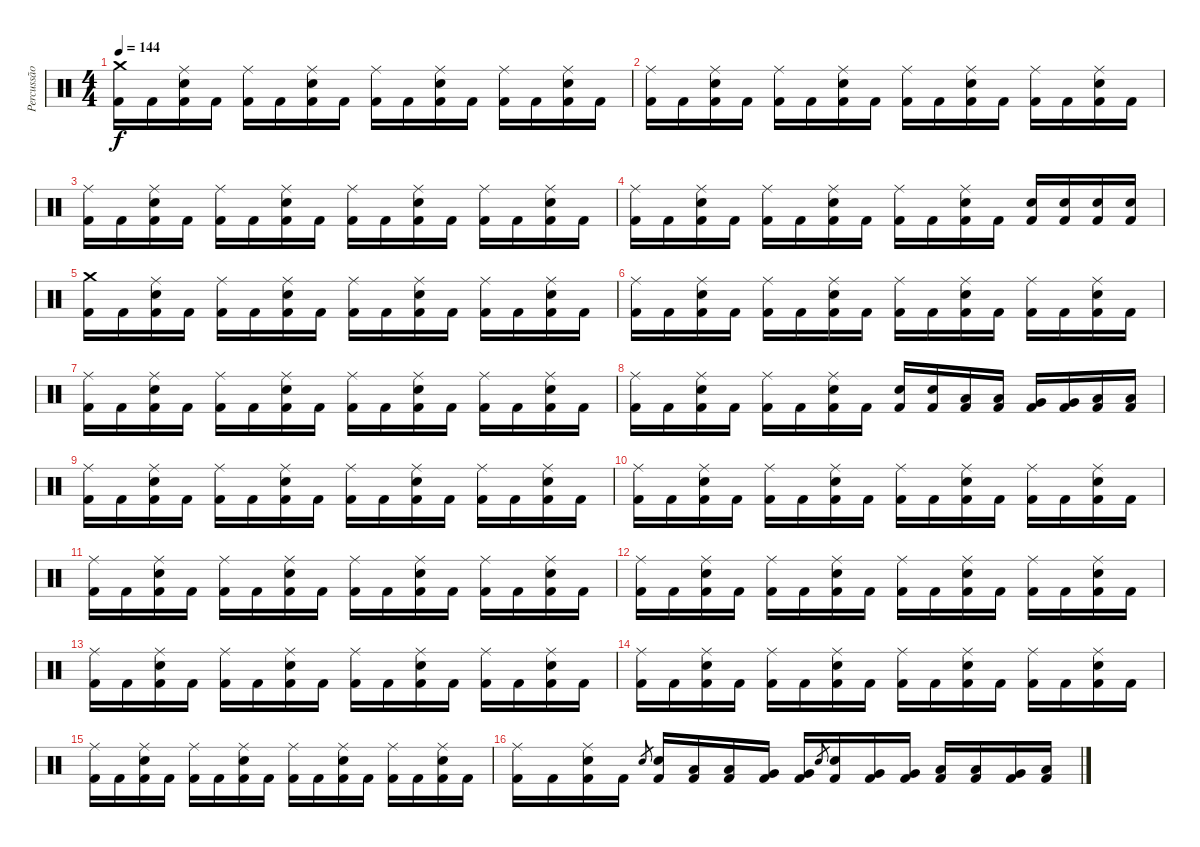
\track ("Percussão" "Percussão") {instrument percussion}
\staff {score}
\articulation defaults
\ts (4 4)
\tempo 144
\clef neutral
\ks c
("Crash medium (hit)" "Kick (hit) 2").16{dy f} "Kick (hit) 2".16 ("Ride (middle)" "Electric Snare (hit)" "Kick (hit) 2").16 "Kick (hit) 2".16 ("Ride (middle)" "Kick (hit) 2").16 "Kick (hit) 2".16 ("Ride (middle)" "Electric Snare (hit)" "Kick (hit) 2").16 "Kick (hit) 2".16 ("Ride (middle)" "Kick (hit) 2").16 "Kick (hit) 2".16 ("Ride (middle)" "Electric Snare (hit)" "Kick (hit) 2").16 "Kick (hit) 2".16 ("Ride (middle)" "Kick (hit) 2").16 "Kick (hit) 2".16 ("Ride (middle)" "Electric Snare (hit)" "Kick (hit) 2").16 "Kick (hit) 2".16 |
("Ride (middle)" "Kick (hit) 2").16 "Kick (hit) 2".16 ("Ride (middle)" "Electric Snare (hit)" "Kick (hit) 2").16 "Kick (hit) 2".16 ("Ride (middle)" "Kick (hit) 2").16 "Kick (hit) 2".16 ("Ride (middle)" "Electric Snare (hit)" "Kick (hit) 2").16 "Kick (hit) 2".16 ("Ride (middle)" "Kick (hit) 2").16 "Kick (hit) 2".16 ("Ride (middle)" "Electric Snare (hit)" "Kick (hit) 2").16 "Kick (hit) 2".16 ("Ride (middle)" "Kick (hit) 2").16 "Kick (hit) 2".16 ("Ride (middle)" "Electric Snare (hit)" "Kick (hit) 2").16 "Kick (hit) 2".16 |
("Ride (middle)" "Kick (hit) 2").16 "Kick (hit) 2".16 ("Ride (middle)" "Electric Snare (hit)" "Kick (hit) 2").16 "Kick (hit) 2".16 ("Ride (middle)" "Kick (hit) 2").16 "Kick (hit) 2".16 ("Ride (middle)" "Electric Snare (hit)" "Kick (hit) 2").16 "Kick (hit) 2".16 ("Ride (middle)" "Kick (hit) 2").16 "Kick (hit) 2".16 ("Ride (middle)" "Electric Snare (hit)" "Kick (hit) 2").16 "Kick (hit) 2".16 ("Ride (middle)" "Kick (hit) 2").16 "Kick (hit) 2".16 ("Ride (middle)" "Electric Snare (hit)" "Kick (hit) 2").16 "Kick (hit) 2".16 |
("Ride (middle)" "Kick (hit) 2").16 "Kick (hit) 2".16 ("Ride (middle)" "Electric Snare (hit)" "Kick (hit) 2").16 "Kick (hit) 2".16 ("Ride (middle)" "Kick (hit) 2").16 "Kick (hit) 2".16 ("Ride (middle)" "Electric Snare (hit)" "Kick (hit) 2").16 "Kick (hit) 2".16 ("Ride (middle)" "Kick (hit) 2").16 "Kick (hit) 2".16 ("Ride (middle)" "Electric Snare (hit)" "Kick (hit) 2").16 "Kick (hit) 2".16 ("Electric Snare (hit)" "Kick (hit) 2").16 ("Electric Snare (hit)" "Kick (hit) 2").16 ("Electric Snare (hit)" "Kick (hit) 2").16 ("Electric Snare (hit)" "Kick (hit) 2").16 |
("Crash medium (hit)" "Kick (hit) 2").16 "Kick (hit) 2".16 ("Ride (middle)" "Electric Snare (hit)" "Kick (hit) 2").16 "Kick (hit) 2".16 ("Ride (middle)" "Kick (hit) 2").16 "Kick (hit) 2".16 ("Ride (middle)" "Electric Snare (hit)" "Kick (hit) 2").16 "Kick (hit) 2".16 ("Ride (middle)" "Kick (hit) 2").16 "Kick (hit) 2".16 ("Ride (middle)" "Electric Snare (hit)" "Kick (hit) 2").16 "Kick (hit) 2".16 ("Ride (middle)" "Kick (hit) 2").16 "Kick (hit) 2".16 ("Ride (middle)" "Electric Snare (hit)" "Kick (hit) 2").16 "Kick (hit) 2".16 |
("Ride (middle)" "Kick (hit) 2").16 "Kick (hit) 2".16 ("Ride (middle)" "Electric Snare (hit)" "Kick (hit) 2").16 "Kick (hit) 2".16 ("Ride (middle)" "Kick (hit) 2").16 "Kick (hit) 2".16 ("Ride (middle)" "Electric Snare (hit)" "Kick (hit) 2").16 "Kick (hit) 2".16 ("Ride (middle)" "Kick (hit) 2").16 "Kick (hit) 2".16 ("Ride (middle)" "Electric Snare (hit)" "Kick (hit) 2").16 "Kick (hit) 2".16 ("Ride (middle)" "Kick (hit) 2").16 "Kick (hit) 2".16 ("Ride (middle)" "Electric Snare (hit)" "Kick (hit) 2").16 "Kick (hit) 2".16 |
("Ride (middle)" "Kick (hit) 2").16 "Kick (hit) 2".16 ("Ride (middle)" "Electric Snare (hit)" "Kick (hit) 2").16 "Kick (hit) 2".16 ("Ride (middle)" "Kick (hit) 2").16 "Kick (hit) 2".16 ("Ride (middle)" "Electric Snare (hit)" "Kick (hit) 2").16 "Kick (hit) 2".16 ("Ride (middle)" "Kick (hit) 2").16 "Kick (hit) 2".16 ("Ride (middle)" "Electric Snare (hit)" "Kick (hit) 2").16 "Kick (hit) 2".16 ("Ride (middle)" "Kick (hit) 2").16 "Kick (hit) 2".16 ("Ride (middle)" "Electric Snare (hit)" "Kick (hit) 2").16 "Kick (hit) 2".16 |
("Ride (middle)" "Kick (hit) 2").16 "Kick (hit) 2".16 ("Ride (middle)" "Electric Snare (hit)" "Kick (hit) 2").16 "Kick (hit) 2".16 ("Ride (middle)" "Kick (hit) 2").16 "Kick (hit) 2".16 ("Ride (middle)" "Electric Snare (hit)" "Kick (hit) 2").16 "Kick (hit) 2".16 ("Electric Snare (hit)" "Kick (hit) 2").16 ("Electric Snare (hit)" "Kick (hit) 2").16 ("Low Tom (hit)" "Kick (hit) 2").16 ("Low Tom (hit)" "Kick (hit) 2").16 ("Very Low Tom (hit)" "Kick (hit) 2").16 ("Very Low Tom (hit)" "Kick (hit) 2").16 ("Low Floor Tom (hit)" "Kick (hit) 2").16 ("Low Floor Tom (hit)" "Kick (hit) 2").16 |
("Ride (middle)" "Kick (hit) 2").16 "Kick (hit) 2".16 ("Ride (middle)" "Electric Snare (hit)" "Kick (hit) 2").16 "Kick (hit) 2".16 ("Ride (middle)" "Kick (hit) 2").16 "Kick (hit) 2".16 ("Ride (middle)" "Electric Snare (hit)" "Kick (hit) 2").16 "Kick (hit) 2".16 ("Ride (middle)" "Kick (hit) 2").16 "Kick (hit) 2".16 ("Ride (middle)" "Electric Snare (hit)" "Kick (hit) 2").16 "Kick (hit) 2".16 ("Ride (middle)" "Kick (hit) 2").16 "Kick (hit) 2".16 ("Ride (middle)" "Electric Snare (hit)" "Kick (hit) 2").16 "Kick (hit) 2".16 |
("Ride (middle)" "Kick (hit) 2").16 "Kick (hit) 2".16 ("Ride (middle)" "Electric Snare (hit)" "Kick (hit) 2").16 "Kick (hit) 2".16 ("Ride (middle)" "Kick (hit) 2").16 "Kick (hit) 2".16 ("Ride (middle)" "Electric Snare (hit)" "Kick (hit) 2").16 "Kick (hit) 2".16 ("Ride (middle)" "Kick (hit) 2").16 "Kick (hit) 2".16 ("Ride (middle)" "Electric Snare (hit)" "Kick (hit) 2").16 "Kick (hit) 2".16 ("Ride (middle)" "Kick (hit) 2").16 "Kick (hit) 2".16 ("Ride (middle)" "Electric Snare (hit)" "Kick (hit) 2").16 "Kick (hit) 2".16 |
("Ride (middle)" "Kick (hit) 2").16 "Kick (hit) 2".16 ("Ride (middle)" "Electric Snare (hit)" "Kick (hit) 2").16 "Kick (hit) 2".16 ("Ride (middle)" "Kick (hit) 2").16 "Kick (hit) 2".16 ("Ride (middle)" "Electric Snare (hit)" "Kick (hit) 2").16 "Kick (hit) 2".16 ("Ride (middle)" "Kick (hit) 2").16 "Kick (hit) 2".16 ("Ride (middle)" "Electric Snare (hit)" "Kick (hit) 2").16 "Kick (hit) 2".16 ("Ride (middle)" "Kick (hit) 2").16 "Kick (hit) 2".16 ("Ride (middle)" "Electric Snare (hit)" "Kick (hit) 2").16 "Kick (hit) 2".16 |
("Ride (middle)" "Kick (hit) 2").16 "Kick (hit) 2".16 ("Ride (middle)" "Electric Snare (hit)" "Kick (hit) 2").16 "Kick (hit) 2".16 ("Ride (middle)" "Kick (hit) 2").16 "Kick (hit) 2".16 ("Ride (middle)" "Electric Snare (hit)" "Kick (hit) 2").16 "Kick (hit) 2".16 ("Ride (middle)" "Kick (hit) 2").16 "Kick (hit) 2".16 ("Ride (middle)" "Electric Snare (hit)" "Kick (hit) 2").16 "Kick (hit) 2".16 ("Ride (middle)" "Kick (hit) 2").16 "Kick (hit) 2".16 ("Ride (middle)" "Electric Snare (hit)" "Kick (hit) 2").16 "Kick (hit) 2".16 |
("Ride (middle)" "Kick (hit) 2").16 "Kick (hit) 2".16 ("Ride (middle)" "Electric Snare (hit)" "Kick (hit) 2").16 "Kick (hit) 2".16 ("Ride (middle)" "Kick (hit) 2").16 "Kick (hit) 2".16 ("Ride (middle)" "Electric Snare (hit)" "Kick (hit) 2").16 "Kick (hit) 2".16 ("Ride (middle)" "Kick (hit) 2").16 "Kick (hit) 2".16 ("Ride (middle)" "Electric Snare (hit)" "Kick (hit) 2").16 "Kick (hit) 2".16 ("Ride (middle)" "Kick (hit) 2").16 "Kick (hit) 2".16 ("Ride (middle)" "Electric Snare (hit)" "Kick (hit) 2").16 "Kick (hit) 2".16 |
("Ride (middle)" "Kick (hit) 2").16 "Kick (hit) 2".16 ("Ride (middle)" "Electric Snare (hit)" "Kick (hit) 2").16 "Kick (hit) 2".16 ("Ride (middle)" "Kick (hit) 2").16 "Kick (hit) 2".16 ("Ride (middle)" "Electric Snare (hit)" "Kick (hit) 2").16 "Kick (hit) 2".16 ("Ride (middle)" "Kick (hit) 2").16 "Kick (hit) 2".16 ("Ride (middle)" "Electric Snare (hit)" "Kick (hit) 2").16 "Kick (hit) 2".16 ("Ride (middle)" "Kick (hit) 2").16 "Kick (hit) 2".16 ("Ride (middle)" "Electric Snare (hit)" "Kick (hit) 2").16 "Kick (hit) 2".16 |
("Ride (middle)" "Kick (hit) 2").16 "Kick (hit) 2".16 ("Ride (middle)" "Electric Snare (hit)" "Kick (hit) 2").16 "Kick (hit) 2".16 ("Ride (middle)" "Kick (hit) 2").16 "Kick (hit) 2".16 ("Ride (middle)" "Electric Snare (hit)" "Kick (hit) 2").16 "Kick (hit) 2".16 ("Ride (middle)" "Kick (hit) 2").16 "Kick (hit) 2".16 ("Ride (middle)" "Electric Snare (hit)" "Kick (hit) 2").16 "Kick (hit) 2".16 ("Ride (middle)" "Kick (hit) 2").16 "Kick (hit) 2".16 ("Ride (middle)" "Electric Snare (hit)" "Kick (hit) 2").16 "Kick (hit) 2".16 |
("Ride (middle)" "Kick (hit) 2").16 "Kick (hit) 2".16 ("Ride (middle)" "Electric Snare (hit)" "Kick (hit) 2").16 "Kick (hit) 2".16 "Electric Snare (hit)".8{gr} ("Electric Snare (hit)" "Kick (hit) 2").16 ("Low Tom (hit)" "Kick (hit) 2").16 ("Low Tom (hit)" "Kick (hit) 2").16 ("Very Low Tom (hit)" "Kick (hit) 2").16 ("Very Low Tom (hit)" "Kick (hit) 2").16 "Electric Snare (hit)".8{gr} ("Electric Snare (hit)" "Kick (hit) 2").16 ("Very Low Tom (hit)" "Kick (hit) 2").16 ("Very Low Tom (hit)" "Kick (hit) 2").16 ("Low Tom (hit)" "Kick (hit) 2").16 ("Low Tom (hit)" "Kick (hit) 2").16 ("Very Low Tom (hit)" "Kick (hit) 2").16 ("Low Floor Tom (hit)" "Kick (hit) 2").16
